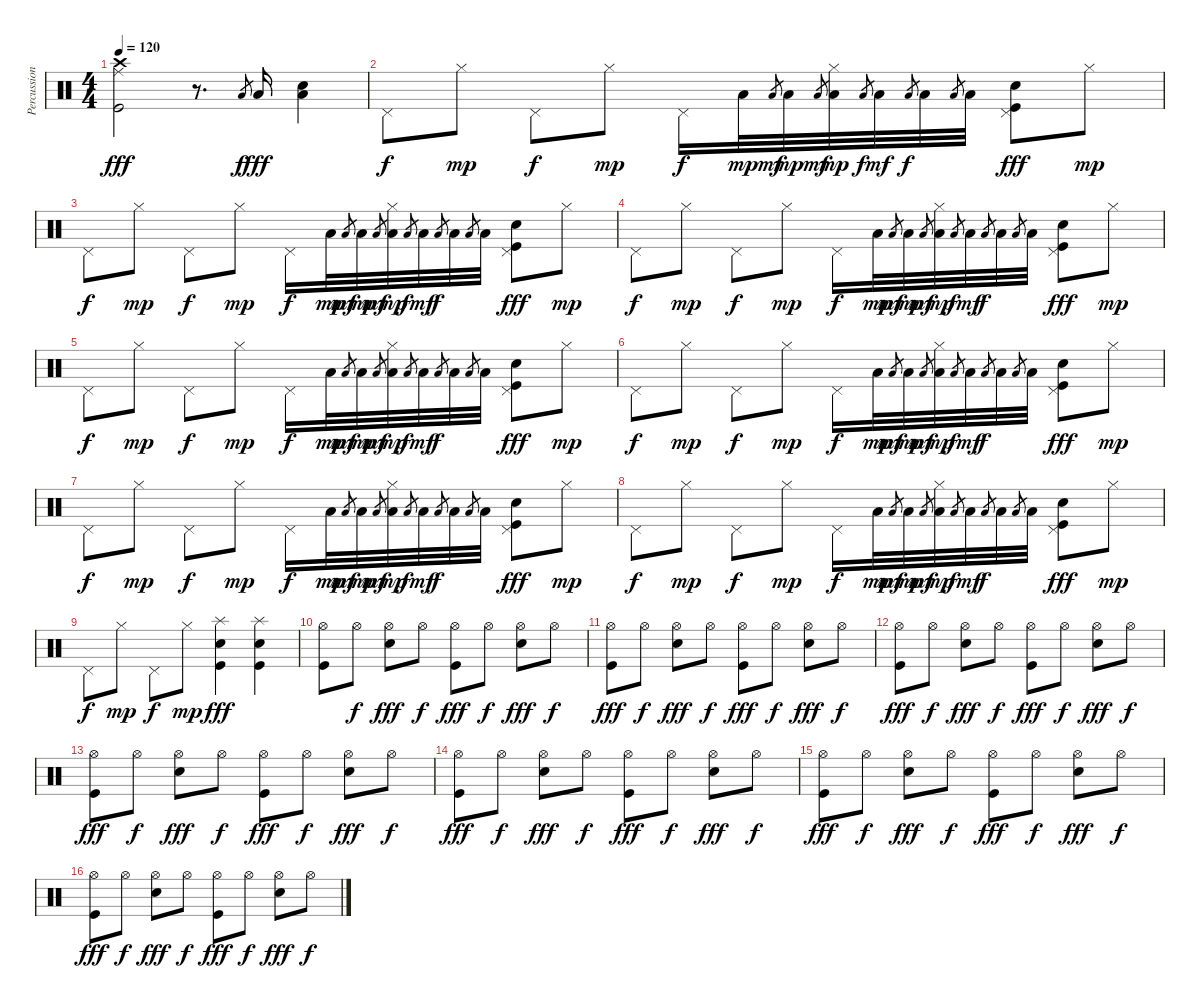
\track ("Percussion" "Percussion") {solo instrument percussion}
\staff {score}
\articulation defaults
\ts (4 4)
\tempo 120
\clef neutral
\ks c
("Crash high (hit)" "Ride (middle)" "Kick (hit)").2{dy fff} r.8{d} "Low Tom (hit)".8{gr dy f} "Low Tom (hit)".16{dy fff} ("Snare (hit) 2" "Low Tom (hit)").4 |
"Pedal Hi-Hat (hit)".8{dy f} "Hi-Hat (closed)".8{dy mp} "Pedal Hi-Hat (hit)".8{dy f} "Hi-Hat (closed)".8{dy mp} "Pedal Hi-Hat (hit)".16{dy f} "Low Tom (hit)".32{dy mp} "Low Tom (hit)".8{gr dy mf} "Low Tom (hit)".32{dy mp} "Low Tom (hit)".8{gr dy mf} ("Hi-Hat (closed)" "Low Tom (hit)").32{dy mp} "Low Tom (hit)".8{gr dy f} "Low Tom (hit)".32{dy mf} "Low Tom (hit)".8{gr dy f} "Low Tom (hit)".32 "Low Tom (hit)".8{gr} "Low Tom (hit)".32 ("Pedal Hi-Hat (hit)" "Snare (hit) 2" "Kick (hit)").8{dy fff} "Hi-Hat (closed)".8{dy mp} |
"Pedal Hi-Hat (hit)".8{dy f} "Hi-Hat (closed)".8{dy mp} "Pedal Hi-Hat (hit)".8{dy f} "Hi-Hat (closed)".8{dy mp} "Pedal Hi-Hat (hit)".16{dy f} "Low Tom (hit)".32{dy mp} "Low Tom (hit)".8{gr dy mf} "Low Tom (hit)".32{dy mp} "Low Tom (hit)".8{gr dy mf} ("Hi-Hat (closed)" "Low Tom (hit)").32{dy mp} "Low Tom (hit)".8{gr dy f} "Low Tom (hit)".32{dy mf} "Low Tom (hit)".8{gr dy f} "Low Tom (hit)".32 "Low Tom (hit)".8{gr} "Low Tom (hit)".32 ("Pedal Hi-Hat (hit)" "Snare (hit) 2" "Kick (hit)").8{dy fff} "Hi-Hat (closed)".8{dy mp} |
"Pedal Hi-Hat (hit)".8{dy f} "Hi-Hat (closed)".8{dy mp} "Pedal Hi-Hat (hit)".8{dy f} "Hi-Hat (closed)".8{dy mp} "Pedal Hi-Hat (hit)".16{dy f} "Low Tom (hit)".32{dy mp} "Low Tom (hit)".8{gr dy mf} "Low Tom (hit)".32{dy mp} "Low Tom (hit)".8{gr dy mf} ("Hi-Hat (closed)" "Low Tom (hit)").32{dy mp} "Low Tom (hit)".8{gr dy f} "Low Tom (hit)".32{dy mf} "Low Tom (hit)".8{gr dy f} "Low Tom (hit)".32 "Low Tom (hit)".8{gr} "Low Tom (hit)".32 ("Pedal Hi-Hat (hit)" "Snare (hit) 2" "Kick (hit)").8{dy fff} "Hi-Hat (closed)".8{dy mp} |
"Pedal Hi-Hat (hit)".8{dy f} "Hi-Hat (closed)".8{dy mp} "Pedal Hi-Hat (hit)".8{dy f} "Hi-Hat (closed)".8{dy mp} "Pedal Hi-Hat (hit)".16{dy f} "Low Tom (hit)".32{dy mp} "Low Tom (hit)".8{gr dy mf} "Low Tom (hit)".32{dy mp} "Low Tom (hit)".8{gr dy mf} ("Hi-Hat (closed)" "Low Tom (hit)").32{dy mp} "Low Tom (hit)".8{gr dy f} "Low Tom (hit)".32{dy mf} "Low Tom (hit)".8{gr dy f} "Low Tom (hit)".32 "Low Tom (hit)".8{gr} "Low Tom (hit)".32 ("Pedal Hi-Hat (hit)" "Snare (hit) 2" "Kick (hit)").8{dy fff} "Hi-Hat (closed)".8{dy mp} |
"Pedal Hi-Hat (hit)".8{dy f} "Hi-Hat (closed)".8{dy mp} "Pedal Hi-Hat (hit)".8{dy f} "Hi-Hat (closed)".8{dy mp} "Pedal Hi-Hat (hit)".16{dy f} "Low Tom (hit)".32{dy mp} "Low Tom (hit)".8{gr dy mf} "Low Tom (hit)".32{dy mp} "Low Tom (hit)".8{gr dy mf} ("Hi-Hat (closed)" "Low Tom (hit)").32{dy mp} "Low Tom (hit)".8{gr dy f} "Low Tom (hit)".32{dy mf} "Low Tom (hit)".8{gr dy f} "Low Tom (hit)".32 "Low Tom (hit)".8{gr} "Low Tom (hit)".32 ("Pedal Hi-Hat (hit)" "Snare (hit) 2" "Kick (hit)").8{dy fff} "Hi-Hat (closed)".8{dy mp} |
"Pedal Hi-Hat (hit)".8{dy f} "Hi-Hat (closed)".8{dy mp} "Pedal Hi-Hat (hit)".8{dy f} "Hi-Hat (closed)".8{dy mp} "Pedal Hi-Hat (hit)".16{dy f} "Low Tom (hit)".32{dy mp} "Low Tom (hit)".8{gr dy mf} "Low Tom (hit)".32{dy mp} "Low Tom (hit)".8{gr dy mf} ("Hi-Hat (closed)" "Low Tom (hit)").32{dy mp} "Low Tom (hit)".8{gr dy f} "Low Tom (hit)".32{dy mf} "Low Tom (hit)".8{gr dy f} "Low Tom (hit)".32 "Low Tom (hit)".8{gr} "Low Tom (hit)".32 ("Pedal Hi-Hat (hit)" "Snare (hit) 2" "Kick (hit)").8{dy fff} "Hi-Hat (closed)".8{dy mp} |
"Pedal Hi-Hat (hit)".8{dy f} "Hi-Hat (closed)".8{dy mp} "Pedal Hi-Hat (hit)".8{dy f} "Hi-Hat (closed)".8{dy mp} "Pedal Hi-Hat (hit)".16{dy f} "Low Tom (hit)".32{dy mp} "Low Tom (hit)".8{gr dy mf} "Low Tom (hit)".32{dy mp} "Low Tom (hit)".8{gr dy mf} ("Hi-Hat (closed)" "Low Tom (hit)").32{dy mp} "Low Tom (hit)".8{gr dy f} "Low Tom (hit)".32{dy mf} "Low Tom (hit)".8{gr dy f} "Low Tom (hit)".32 "Low Tom (hit)".8{gr} "Low Tom (hit)".32 ("Pedal Hi-Hat (hit)" "Snare (hit) 2" "Kick (hit)").8{dy fff} "Hi-Hat (closed)".8{dy mp} |
"Pedal Hi-Hat (hit)".8{dy f} "Hi-Hat (closed)".8{dy mp} "Pedal Hi-Hat (hit)".8{dy f} "Hi-Hat (closed)".8{dy mp} ("Splash (hit)" "Snare (hit) 2" "Kick (hit)").4{dy fff} ("Splash (hit)" "Snare (hit) 2" "Kick (hit)").4 |
("Hi-Hat (open)" "Kick (hit)").8 "Hi-Hat (open)".8{dy f} ("Hi-Hat (open)" "Snare (hit) 2").8{dy fff} "Hi-Hat (open)".8{dy f} ("Hi-Hat (open)" "Kick (hit)").8{dy fff} "Hi-Hat (open)".8{dy f} ("Hi-Hat (open)" "Snare (hit) 2").8{dy fff} "Hi-Hat (open)".8{dy f} |
("Hi-Hat (open)" "Kick (hit)").8{dy fff} "Hi-Hat (open)".8{dy f} ("Hi-Hat (open)" "Snare (hit) 2").8{dy fff} "Hi-Hat (open)".8{dy f} ("Hi-Hat (open)" "Kick (hit)").8{dy fff} "Hi-Hat (open)".8{dy f} ("Hi-Hat (open)" "Snare (hit) 2").8{dy fff} "Hi-Hat (open)".8{dy f} |
("Hi-Hat (open)" "Kick (hit)").8{dy fff} "Hi-Hat (open)".8{dy f} ("Hi-Hat (open)" "Snare (hit) 2").8{dy fff} "Hi-Hat (open)".8{dy f} ("Hi-Hat (open)" "Kick (hit)").8{dy fff} "Hi-Hat (open)".8{dy f} ("Hi-Hat (open)" "Snare (hit) 2").8{dy fff} "Hi-Hat (open)".8{dy f} |
("Hi-Hat (open)" "Kick (hit)").8{dy fff} "Hi-Hat (open)".8{dy f} ("Hi-Hat (open)" "Snare (hit) 2").8{dy fff} "Hi-Hat (open)".8{dy f} ("Hi-Hat (open)" "Kick (hit)").8{dy fff} "Hi-Hat (open)".8{dy f} ("Hi-Hat (open)" "Snare (hit) 2").8{dy fff} "Hi-Hat (open)".8{dy f} |
("Hi-Hat (open)" "Kick (hit)").8{dy fff} "Hi-Hat (open)".8{dy f} ("Hi-Hat (open)" "Snare (hit) 2").8{dy fff} "Hi-Hat (open)".8{dy f} ("Hi-Hat (open)" "Kick (hit)").8{dy fff} "Hi-Hat (open)".8{dy f} ("Hi-Hat (open)" "Snare (hit) 2").8{dy fff} "Hi-Hat (open)".8{dy f} |
("Hi-Hat (open)" "Kick (hit)").8{dy fff} "Hi-Hat (open)".8{dy f} ("Hi-Hat (open)" "Snare (hit) 2").8{dy fff} "Hi-Hat (open)".8{dy f} ("Hi-Hat (open)" "Kick (hit)").8{dy fff} "Hi-Hat (open)".8{dy f} ("Hi-Hat (open)" "Snare (hit) 2").8{dy fff} "Hi-Hat (open)".8{dy f} |
("Hi-Hat (open)" "Kick (hit)").8{dy fff} "Hi-Hat (open)".8{dy f} ("Hi-Hat (open)" "Snare (hit) 2").8{dy fff} "Hi-Hat (open)".8{dy f} ("Hi-Hat (open)" "Kick (hit)").8{dy fff} "Hi-Hat (open)".8{dy f} ("Hi-Hat (open)" "Snare (hit) 2").8{dy fff} "Hi-Hat (open)".8{dy f}
